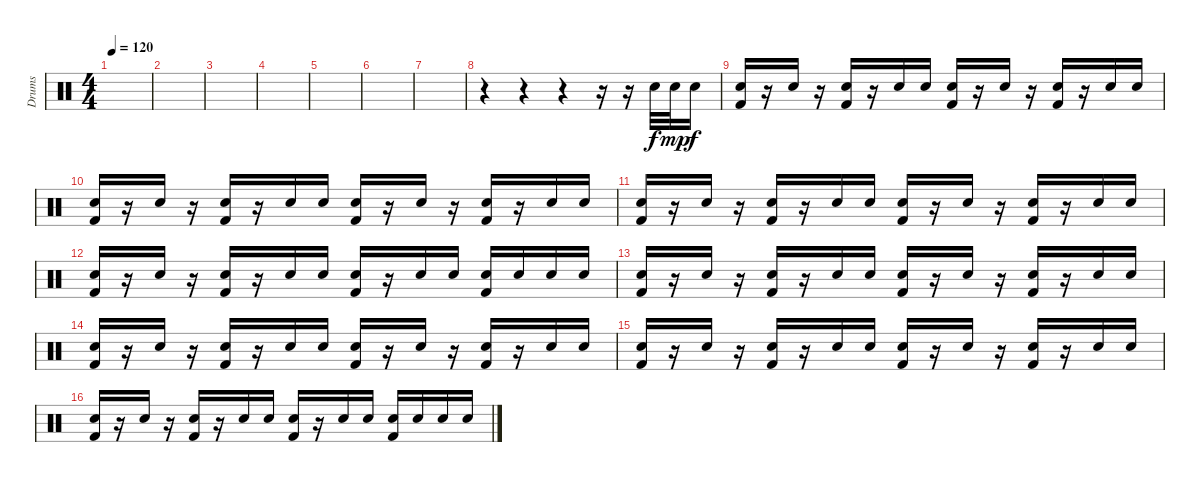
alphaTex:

\track ("Drums" "Drums") {instrument percussion}
\staff {score}
\articulation defaults
\ts (4 4)
\tempo 120
\clef neutral
\ks c
|
|
|
|
|
|
|
r.4 r.4 r.4 r.16 r.16 "Electric Snare (hit)".32 "Electric Snare (hit)".32{dy mp} "Electric Snare (hit)".16{dy f} |
("Electric Snare (hit)" "Kick (hit) 2").16 r.16 "Electric Snare (hit)".16 r.16 ("Electric Snare (hit)" "Kick (hit) 2").16 r.16 "Electric Snare (hit)".16 "Electric Snare (hit)".16 ("Electric Snare (hit)" "Kick (hit) 2").16 r.16 "Electric Snare (hit)".16 r.16 ("Electric Snare (hit)" "Kick (hit) 2").16 r.16 "Electric Snare (hit)".16 "Electric Snare (hit)".16 |
("Electric Snare (hit)" "Kick (hit) 2").16 r.16 "Electric Snare (hit)".16 r.16 ("Electric Snare (hit)" "Kick (hit) 2").16 r.16 "Electric Snare (hit)".16 "Electric Snare (hit)".16 ("Electric Snare (hit)" "Kick (hit) 2").16 r.16 "Electric Snare (hit)".16 r.16 ("Electric Snare (hit)" "Kick (hit) 2").16 r.16 "Electric Snare (hit)".16 "Electric Snare (hit)".16 |
("Electric Snare (hit)" "Kick (hit) 2").16 r.16 "Electric Snare (hit)".16 r.16 ("Electric Snare (hit)" "Kick (hit) 2").16 r.16 "Electric Snare (hit)".16 "Electric Snare (hit)".16 ("Electric Snare (hit)" "Kick (hit) 2").16 r.16 "Electric Snare (hit)".16 r.16 ("Electric Snare (hit)" "Kick (hit) 2").16 r.16 "Electric Snare (hit)".16 "Electric Snare (hit)".16 |
("Electric Snare (hit)" "Kick (hit) 2").16 r.16 "Electric Snare (hit)".16 r.16 ("Electric Snare (hit)" "Kick (hit) 2").16 r.16 "Electric Snare (hit)".16 "Electric Snare (hit)".16 ("Electric Snare (hit)" "Kick (hit) 2").16 r.16 "Electric Snare (hit)".16 "Electric Snare (hit)".16 ("Electric Snare (hit)" "Kick (hit) 2").16 "Electric Snare (hit)".16 "Electric Snare (hit)".16 "Electric Snare (hit)".16 |
("Electric Snare (hit)" "Kick (hit) 2").16 r.16 "Electric Snare (hit)".16 r.16 ("Electric Snare (hit)" "Kick (hit) 2").16 r.16 "Electric Snare (hit)".16 "Electric Snare (hit)".16 ("Electric Snare (hit)" "Kick (hit) 2").16 r.16 "Electric Snare (hit)".16 r.16 ("Electric Snare (hit)" "Kick (hit) 2").16 r.16 "Electric Snare (hit)".16 "Electric Snare (hit)".16 |
("Electric Snare (hit)" "Kick (hit) 2").16 r.16 "Electric Snare (hit)".16 r.16 ("Electric Snare (hit)" "Kick (hit) 2").16 r.16 "Electric Snare (hit)".16 "Electric Snare (hit)".16 ("Electric Snare (hit)" "Kick (hit) 2").16 r.16 "Electric Snare (hit)".16 r.16 ("Electric Snare (hit)" "Kick (hit) 2").16 r.16 "Electric Snare (hit)".16 "Electric Snare (hit)".16 |
("Electric Snare (hit)" "Kick (hit) 2").16 r.16 "Electric Snare (hit)".16 r.16 ("Electric Snare (hit)" "Kick (hit) 2").16 r.16 "Electric Snare (hit)".16 "Electric Snare (hit)".16 ("Electric Snare (hit)" "Kick (hit) 2").16 r.16 "Electric Snare (hit)".16 r.16 ("Electric Snare (hit)" "Kick (hit) 2").16 r.16 "Electric Snare (hit)".16 "Electric Snare (hit)".16 |
("Electric Snare (hit)" "Kick (hit) 2").16 r.16 "Electric Snare (hit)".16 r.16 ("Electric Snare (hit)" "Kick (hit) 2").16 r.16 "Electric Snare (hit)".16 "Electric Snare (hit)".16 ("Electric Snare (hit)" "Kick (hit) 2").16 r.16 "Electric Snare (hit)".16 "Electric Snare (hit)".16 ("Electric Snare (hit)" "Kick (hit) 2").16 "Electric Snare (hit)".16 "Electric Snare (hit)".16 "Electric Snare (hit)".16
